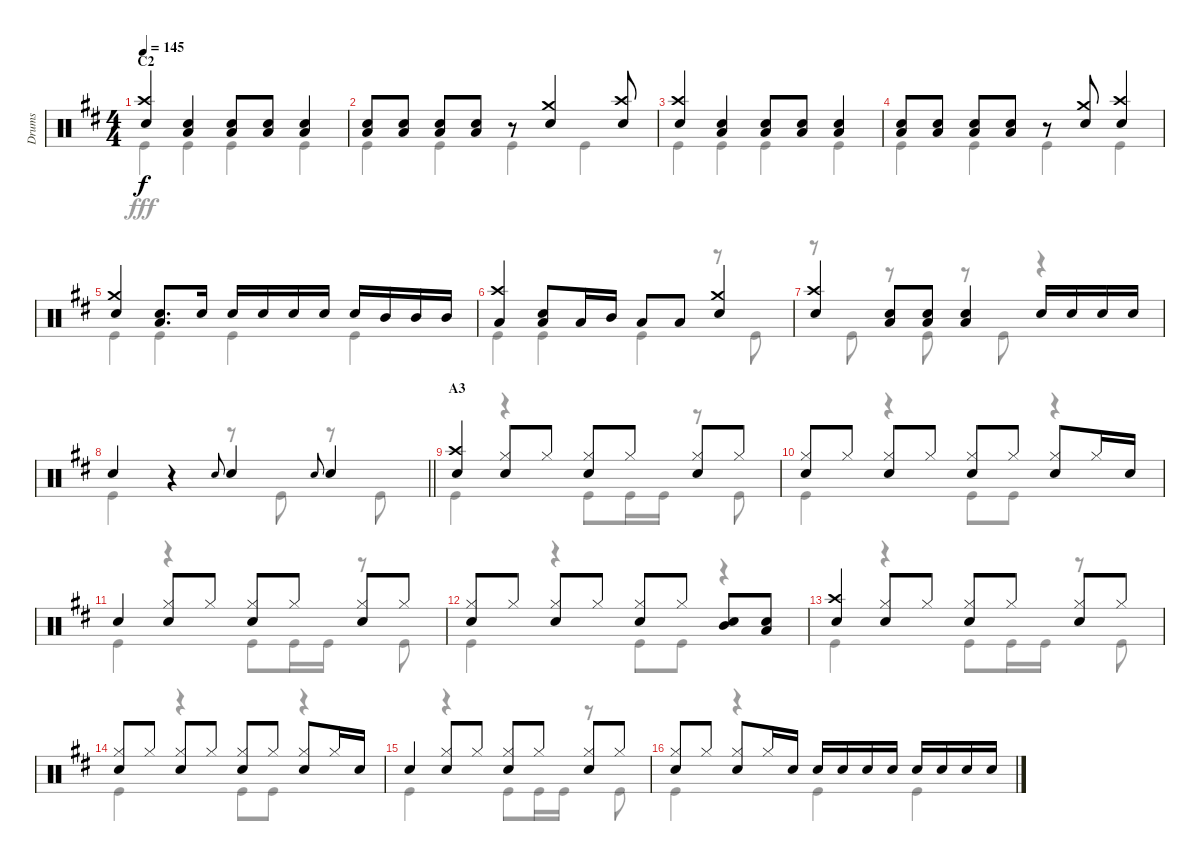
\track ("Drums" "Drums") {instrument percussion}
\staff {score}
\articulation defaults
\voice
\ts (4 4)
\section ("" "C2")
\tempo 145
\clef neutral
\ks d
("Crash high (hit)" "Snare (hit) 2").4{dy f} ("Snare (hit) 2" "Low Tom (hit)").4 ("Snare (hit) 2" "Low Tom (hit)").8 ("Snare (hit) 2" "Low Tom (hit)").8 ("Snare (hit) 2" "Low Tom (hit)").4 |
("Snare (hit) 2" "Low Tom (hit)").8 ("Snare (hit) 2" "Low Tom (hit)").8 ("Snare (hit) 2" "Low Tom (hit)").8 ("Snare (hit) 2" "Low Tom (hit)").8 r.8 ("Crash medium (hit)" "Snare (hit) 2").4 ("Crash high (hit)" "Snare (hit) 2").8 |
("Crash high (hit)" "Snare (hit) 2").4 ("Snare (hit) 2" "Low Tom (hit)").4 ("Snare (hit) 2" "Low Tom (hit)").8 ("Snare (hit) 2" "Low Tom (hit)").8 ("Snare (hit) 2" "Low Tom (hit)").4 |
("Snare (hit) 2" "Low Tom (hit)").8 ("Snare (hit) 2" "Low Tom (hit)").8 ("Snare (hit) 2" "Low Tom (hit)").8 ("Snare (hit) 2" "Low Tom (hit)").8 r.8 ("Crash medium (hit)" "Snare (hit) 2").8 ("Crash high (hit)" "Snare (hit) 2").4 |
("Crash medium (hit)" "Snare (hit) 2").4 ("Snare (hit) 2" "Low Tom (hit)").8{d} "Snare (hit) 2".16 "Snare (hit) 2".16 "Snare (hit) 2".16 "Snare (hit) 2".16 "Snare (hit) 2".16 "Snare (hit) 2".16 "Mid Tom (hit)".16 "Mid Tom (hit)".16 "Mid Tom (hit)".16 |
("Crash high (hit)" "Low Tom (hit)").4 ("Snare (hit) 2" "Low Tom (hit)").8 "Low Tom (hit)".16 "Mid Tom (hit)".16 "Low Tom (hit)".8 "Low Tom (hit)".8 ("Crash medium (hit)" "Snare (hit) 2").4 |
("Crash high (hit)" "Snare (hit) 2").4 ("Snare (hit) 2" "Low Tom (hit)").8 ("Snare (hit) 2" "Low Tom (hit)").8 ("Snare (hit) 2" "Low Tom (hit)").4 "Snare (hit) 2".16 "Snare (hit) 2".16 "Snare (hit) 2".16 "Snare (hit) 2".16 |
\barLineRight lightlight "Snare (hit) 2".4
r.4 "Snare (hit) 2".8{gr onbeat} "Snare (hit) 2".4 "Snare (hit) 2".8{gr onbeat} "Snare (hit) 2".4 |
\section ("" "A3")
("Crash high (hit)" "Snare (hit) 2").4 ("Hi-Hat (closed)" "Snare (hit) 2").8 "Hi-Hat (closed)".8 ("Hi-Hat (closed)" "Snare (hit) 2").8 "Hi-Hat (closed)".8 ("Hi-Hat (closed)" "Snare (hit) 2").8 "Hi-Hat (closed)".8 |
("Hi-Hat (closed)" "Snare (hit) 2").8 "Hi-Hat (closed)".8 ("Hi-Hat (closed)" "Snare (hit) 2").8 "Hi-Hat (closed)".8 ("Hi-Hat (closed)" "Snare (hit) 2").8 "Hi-Hat (closed)".8 ("Hi-Hat (closed)" "Snare (hit) 2").8 "Hi-Hat (closed)".16 "Snare (hit) 2".16 |
"Snare (hit) 2".4 ("Hi-Hat (closed)" "Snare (hit) 2").8 "Hi-Hat (closed)".8 ("Hi-Hat (closed)" "Snare (hit) 2").8 "Hi-Hat (closed)".8 ("Hi-Hat (closed)" "Snare (hit) 2").8 "Hi-Hat (closed)".8 |
("Hi-Hat (closed)" "Snare (hit) 2").8 "Hi-Hat (closed)".8 ("Hi-Hat (closed)" "Snare (hit) 2").8 "Hi-Hat (closed)".8 ("Hi-Hat (closed)" "Snare (hit) 2").8 "Hi-Hat (closed)".8 ("Mid Tom (hit)" "Snare (hit) 2").8 ("Low Tom (hit)" "Snare (hit) 2").8 |
("Crash high (hit)" "Snare (hit) 2").4 ("Hi-Hat (closed)" "Snare (hit) 2").8 "Hi-Hat (closed)".8 ("Hi-Hat (closed)" "Snare (hit) 2").8 "Hi-Hat (closed)".8 ("Hi-Hat (closed)" "Snare (hit) 2").8 "Hi-Hat (closed)".8 |
("Hi-Hat (closed)" "Snare (hit) 2").8 "Hi-Hat (closed)".8 ("Hi-Hat (closed)" "Snare (hit) 2").8 "Hi-Hat (closed)".8 ("Hi-Hat (closed)" "Snare (hit) 2").8 "Hi-Hat (closed)".8 ("Hi-Hat (closed)" "Snare (hit) 2").8 "Hi-Hat (closed)".16 "Snare (hit) 2".16 |
"Snare (hit) 2".4 ("Hi-Hat (closed)" "Snare (hit) 2").8 "Hi-Hat (closed)".8 ("Hi-Hat (closed)" "Snare (hit) 2").8 "Hi-Hat (closed)".8 ("Hi-Hat (closed)" "Snare (hit) 2").8 "Hi-Hat (closed)".8 |
("Hi-Hat (closed)" "Snare (hit) 2").8 "Hi-Hat (closed)".8 ("Hi-Hat (closed)" "Snare (hit) 2").8 "Hi-Hat (closed)".16 "Snare (hit) 2".16 "Snare (hit) 2".16 "Snare (hit) 2".16 "Snare (hit) 2".16 "Snare (hit) 2".16 "Snare (hit) 2".16 "Snare (hit) 2".16 "Snare (hit) 2".16 "Snare (hit) 2".16
\voice
\clef neutral
\ottava regular
\simile none
\ks d "Kick (hit)".4{dy fff} "Kick (hit)".4 "Kick (hit)".4 "Kick (hit)".4
|
"Kick (hit)".4 "Kick (hit)".4 "Kick (hit)".4 "Kick (hit)".4 |
"Kick (hit)".4 "Kick (hit)".4 "Kick (hit)".4 "Kick (hit)".4 |
"Kick (hit)".4 "Kick (hit)".4 "Kick (hit)".4 "Kick (hit)".4 |
"Kick (hit)".4 "Kick (hit)".4 "Kick (hit)".4 "Kick (hit)".4 |
"Kick (hit)".4 "Kick (hit)".4 "Kick (hit)".4 r.8 "Kick (hit)".8 |
r.8 "Kick (hit)".8 r.8 "Kick (hit)".8 r.8 "Kick (hit)".8 r.4 |
\barLineRight lightlight "Kick (hit)".4
r.4 r.8 "Kick (hit)".8 r.8 "Kick (hit)".8 |
"Kick (hit)".4 r.4 "Kick (hit)".8 "Kick (hit)".16 "Kick (hit)".16 r.8 "Kick (hit)".8 |
"Kick (hit)".4 r.4 "Kick (hit)".8 "Kick (hit)".8 r.4 |
"Kick (hit)".4 r.4 "Kick (hit)".8 "Kick (hit)".16 "Kick (hit)".16 r.8 "Kick (hit)".8 |
"Kick (hit)".4 r.4 "Kick (hit)".8 "Kick (hit)".8 r.4 |
"Kick (hit)".4 r.4 "Kick (hit)".8 "Kick (hit)".16 "Kick (hit)".16 r.8 "Kick (hit)".8 |
"Kick (hit)".4 r.4 "Kick (hit)".8 "Kick (hit)".8 r.4 |
"Kick (hit)".4 r.4 "Kick (hit)".8 "Kick (hit)".16 "Kick (hit)".16 r.8 "Kick (hit)".8 |
"Kick (hit)".4 r.4 "Kick (hit)".4 "Kick (hit)".4
